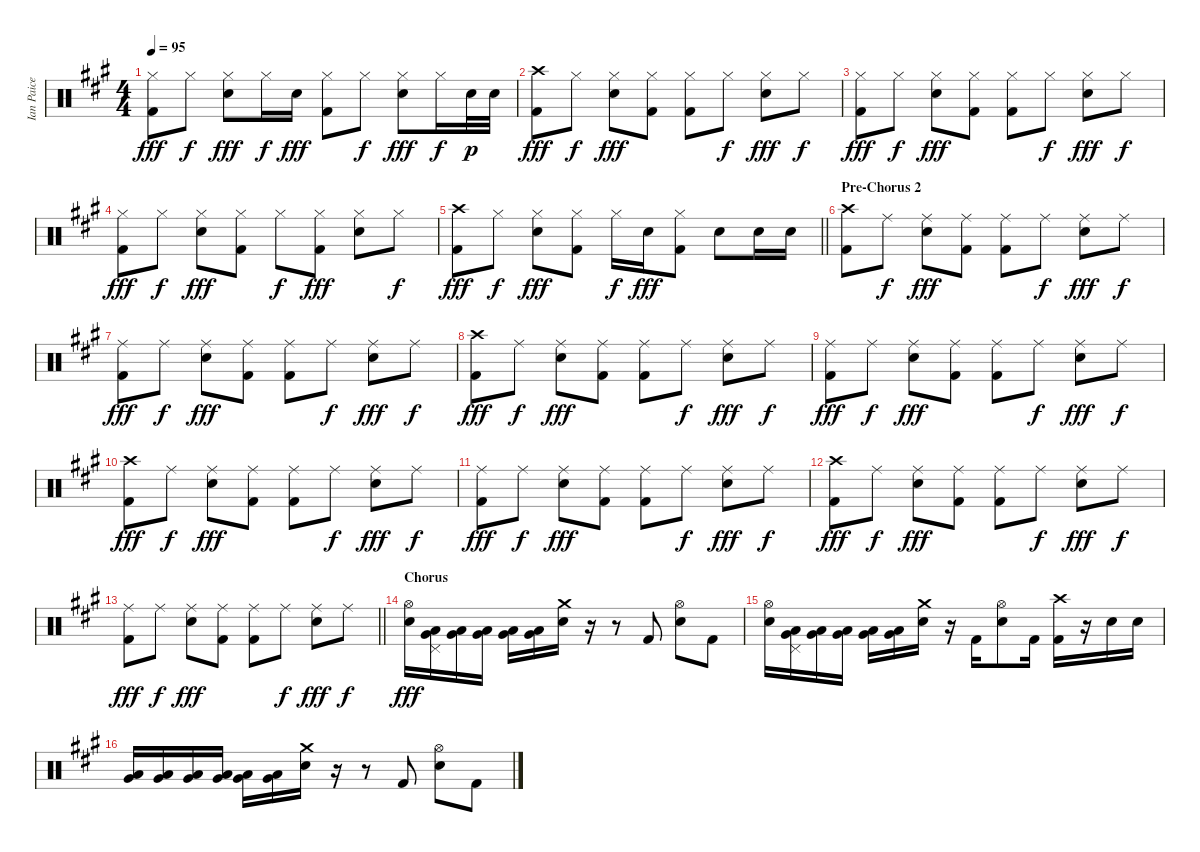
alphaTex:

\track ("Ian Paice" "Ian Paice") {instrument percussion}
\staff {score}
\articulation defaults
\ts (4 4)
\tempo 95
\clef neutral
\ks f#minor
("Hi-Hat (closed)" "Kick (hit) 2").8{dy fff} "Hi-Hat (closed)".8{dy f} ("Hi-Hat (closed)" "Snare (hit) 2").8{dy fff} "Hi-Hat (closed)".16{dy f} "Snare (hit) 2".16{dy fff} ("Hi-Hat (closed)" "Kick (hit) 2").8 "Hi-Hat (closed)".8{dy f} ("Hi-Hat (closed)" "Snare (hit) 2").8{dy fff} "Hi-Hat (closed)".16{dy f} "Snare (hit) 2".32{dy p} "Snare (hit) 2".32 |
("Crash high (hit)" "Kick (hit) 2").8{dy fff} "Hi-Hat (closed)".8{dy f} ("Hi-Hat (closed)" "Snare (hit) 2").8{dy fff} ("Hi-Hat (closed)" "Kick (hit) 2").8 ("Hi-Hat (closed)" "Kick (hit) 2").8 "Hi-Hat (closed)".8{dy f} ("Hi-Hat (closed)" "Snare (hit) 2").8{dy fff} "Hi-Hat (closed)".8{dy f} |
("Hi-Hat (closed)" "Kick (hit) 2").8{dy fff} "Hi-Hat (closed)".8{dy f} ("Hi-Hat (closed)" "Snare (hit) 2").8{dy fff} ("Hi-Hat (closed)" "Kick (hit) 2").8 ("Hi-Hat (closed)" "Kick (hit) 2").8 "Hi-Hat (closed)".8{dy f} ("Hi-Hat (closed)" "Snare (hit) 2").8{dy fff} "Hi-Hat (closed)".8{dy f} |
("Hi-Hat (closed)" "Kick (hit) 2").8{dy fff} "Hi-Hat (closed)".8{dy f} ("Hi-Hat (closed)" "Snare (hit) 2").8{dy fff} ("Hi-Hat (closed)" "Kick (hit) 2").8 "Hi-Hat (closed)".8{dy f} ("Hi-Hat (closed)" "Kick (hit) 2").8{dy fff} ("Hi-Hat (closed)" "Snare (hit) 2").8 "Hi-Hat (closed)".8{dy f} |
\barLineRight lightlight
("Crash high (hit)" "Kick (hit) 2").8{dy fff} "Hi-Hat (closed)".8{dy f} ("Hi-Hat (closed)" "Snare (hit) 2").8{dy fff} ("Hi-Hat (closed)" "Kick (hit) 2").8 "Hi-Hat (closed)".16{dy f} "Snare (hit) 2".16{dy fff} ("Hi-Hat (closed)" "Kick (hit) 2").8 "Snare (hit) 2".8 "Snare (hit) 2".16 "Snare (hit) 2".16 |
\section ("" "Pre-Chorus 2")
("Crash high (hit)" "Kick (hit) 2").8 "Ride (middle)".8{dy f} ("Ride (middle)" "Snare (hit) 2").8{dy fff} ("Ride (middle)" "Kick (hit) 2").8 ("Ride (middle)" "Kick (hit) 2").8 "Ride (middle)".8{dy f} ("Ride (middle)" "Snare (hit) 2").8{dy fff} "Ride (middle)".8{dy f} |
("Ride (middle)" "Kick (hit) 2").8{dy fff} "Ride (middle)".8{dy f} ("Ride (middle)" "Snare (hit) 2").8{dy fff} ("Ride (middle)" "Kick (hit) 2").8 ("Ride (middle)" "Kick (hit) 2").8 "Ride (middle)".8{dy f} ("Ride (middle)" "Snare (hit) 2").8{dy fff} "Ride (middle)".8{dy f} |
("Crash high (hit)" "Kick (hit) 2").8{dy fff} "Ride (middle)".8{dy f} ("Ride (middle)" "Snare (hit) 2").8{dy fff} ("Ride (middle)" "Kick (hit) 2").8 ("Ride (middle)" "Kick (hit) 2").8 "Ride (middle)".8{dy f} ("Ride (middle)" "Snare (hit) 2").8{dy fff} "Ride (middle)".8{dy f} |
("Ride (middle)" "Kick (hit) 2").8{dy fff} "Ride (middle)".8{dy f} ("Ride (middle)" "Snare (hit) 2").8{dy fff} ("Ride (middle)" "Kick (hit) 2").8 ("Ride (middle)" "Kick (hit) 2").8 "Ride (middle)".8{dy f} ("Ride (middle)" "Snare (hit) 2").8{dy fff} "Ride (middle)".8{dy f} |
("Crash high (hit)" "Kick (hit) 2").8{dy fff} "Ride (middle)".8{dy f} ("Ride (middle)" "Snare (hit) 2").8{dy fff} ("Ride (middle)" "Kick (hit) 2").8 ("Ride (middle)" "Kick (hit) 2").8 "Ride (middle)".8{dy f} ("Ride (middle)" "Snare (hit) 2").8{dy fff} "Ride (middle)".8{dy f} |
("Ride (middle)" "Kick (hit) 2").8{dy fff} "Ride (middle)".8{dy f} ("Ride (middle)" "Snare (hit) 2").8{dy fff} ("Ride (middle)" "Kick (hit) 2").8 ("Ride (middle)" "Kick (hit) 2").8 "Ride (middle)".8{dy f} ("Ride (middle)" "Snare (hit) 2").8{dy fff} "Ride (middle)".8{dy f} |
("Crash high (hit)" "Kick (hit) 2").8{dy fff} "Ride (middle)".8{dy f} ("Ride (middle)" "Snare (hit) 2").8{dy fff} ("Ride (middle)" "Kick (hit) 2").8 ("Ride (middle)" "Kick (hit) 2").8 "Ride (middle)".8{dy f} ("Ride (middle)" "Snare (hit) 2").8{dy fff} "Ride (middle)".8{dy f} |
\barLineRight lightlight
("Ride (middle)" "Kick (hit) 2").8{dy fff} "Ride (middle)".8{dy f} ("Ride (middle)" "Snare (hit) 2").8{dy fff} ("Ride (middle)" "Kick (hit) 2").8 ("Ride (middle)" "Kick (hit) 2").8 "Ride (middle)".8{dy f} ("Ride (middle)" "Snare (hit) 2").8{dy fff} "Ride (middle)".8{dy f} |
\section ("" "Chorus")
("Hi-Hat (open)" "Snare (hit) 2").16{dy fff} ("Pedal Hi-Hat (hit)" "Low Floor Tom (hit)" "Very Low Tom (hit)").16 ("Low Floor Tom (hit)" "Very Low Tom (hit)").16 ("Low Floor Tom (hit)" "Very Low Tom (hit)").16 ("Low Floor Tom (hit)" "Very Low Tom (hit)").16 ("Low Floor Tom (hit)" "Very Low Tom (hit)").16 ("Crash medium (hit)" "Snare (hit) 2").16 r.16 r.8 "Kick (hit) 2".8 ("Hi-Hat (open)" "Snare (hit) 2").8 "Kick (hit) 2".8 |
("Hi-Hat (open)" "Snare (hit) 2").16 ("Pedal Hi-Hat (hit)" "Low Floor Tom (hit)" "Very Low Tom (hit)").16 ("Low Floor Tom (hit)" "Very Low Tom (hit)").16 ("Low Floor Tom (hit)" "Very Low Tom (hit)").16 ("Low Floor Tom (hit)" "Very Low Tom (hit)").16 ("Low Floor Tom (hit)" "Very Low Tom (hit)").16 ("Crash medium (hit)" "Snare (hit) 2").16 r.16 "Kick (hit) 2".16 ("Hi-Hat (open)" "Snare (hit) 2").8 "Kick (hit) 2".16 ("Crash high (hit)" "Kick (hit) 2").16 r.16 "Snare (hit) 2".16 "Snare (hit) 2".16 |
("Low Floor Tom (hit)" "Very Low Tom (hit)").16 ("Low Floor Tom (hit)" "Very Low Tom (hit)").16 ("Low Floor Tom (hit)" "Very Low Tom (hit)").16 ("Low Floor Tom (hit)" "Very Low Tom (hit)").16 ("Low Floor Tom (hit)" "Very Low Tom (hit)").16 ("Low Floor Tom (hit)" "Very Low Tom (hit)").16 ("Crash medium (hit)" "Snare (hit) 2").16 r.16 r.8 "Kick (hit) 2".8 ("Hi-Hat (open)" "Snare (hit) 2").8 "Kick (hit) 2".8
